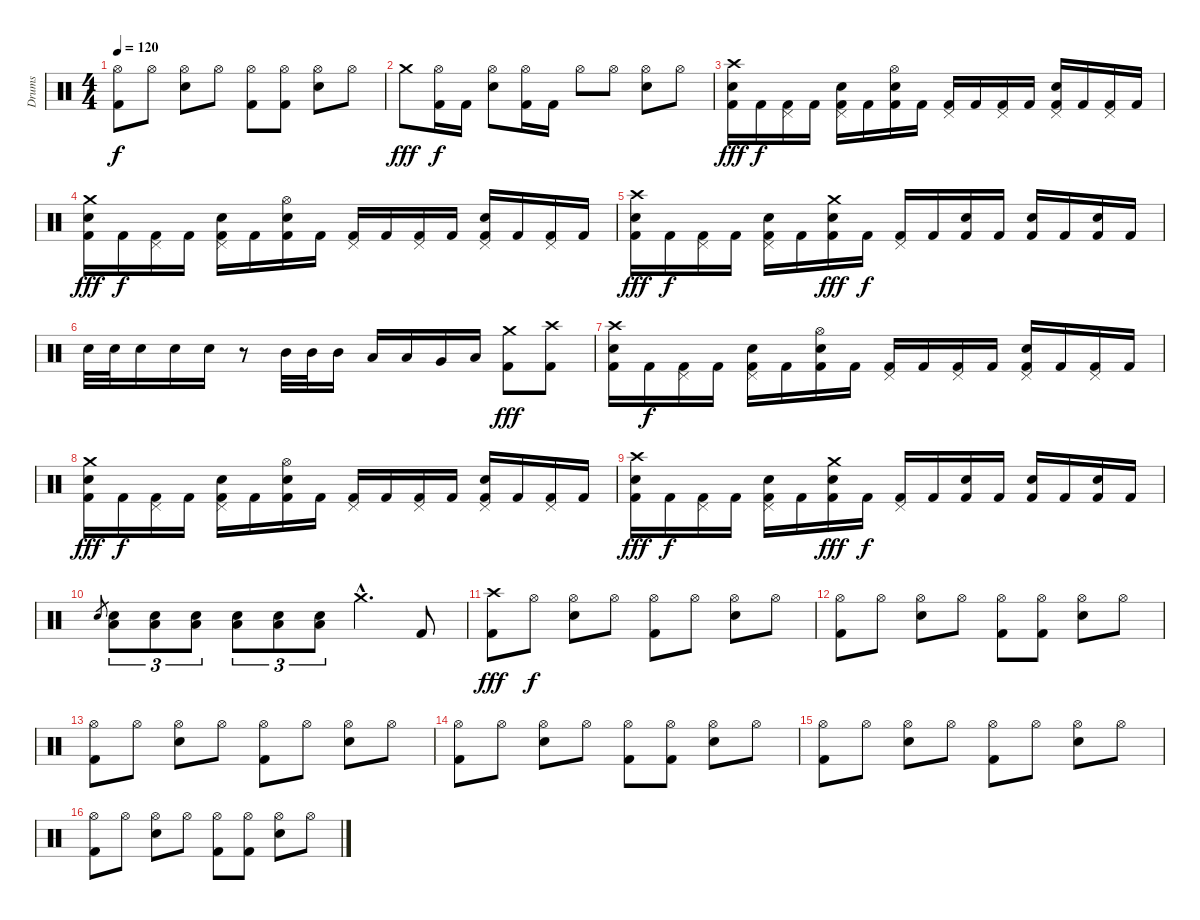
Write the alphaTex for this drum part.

\track ("Drums" "Drums") {instrument percussion}
\staff {score}
\articulation defaults
\ts (4 4)
\tempo 120
\clef neutral
\ks c
("Hi-Hat (open)" "Kick (hit) 2").8{dy f} "Hi-Hat (open)".8 ("Hi-Hat (open)" "Electric Snare (hit)").8 "Hi-Hat (open)".8 ("Hi-Hat (open)" "Kick (hit) 2").8 ("Hi-Hat (open)" "Kick (hit) 2").8 ("Hi-Hat (open)" "Electric Snare (hit)").8 "Hi-Hat (open)".8 |
"Crash medium (hit)".8{dy fff} ("Hi-Hat (open)" "Kick (hit) 2").16{dy f} "Kick (hit) 2".16 ("Hi-Hat (open)" "Electric Snare (hit)").8 ("Hi-Hat (open)" "Kick (hit) 2").16 "Kick (hit) 2".16 "Hi-Hat (open)".8 "Hi-Hat (open)".8 ("Hi-Hat (open)" "Electric Snare (hit)").8 "Hi-Hat (open)".8 |
("Crash high (hit)" "Electric Snare (hit)" "Kick (hit) 2").16{dy fff} "Kick (hit) 2".16{dy f} ("Pedal Hi-Hat (hit)" "Kick (hit) 2").16 "Kick (hit) 2".16 ("Pedal Hi-Hat (hit)" "Electric Snare (hit)" "Kick (hit) 2").16 "Kick (hit) 2".16 ("Hi-Hat (open)" "Electric Snare (hit)" "Kick (hit) 2").16 "Kick (hit) 2".16 ("Pedal Hi-Hat (hit)" "Kick (hit) 2").16 "Kick (hit) 2".16 ("Pedal Hi-Hat (hit)" "Kick (hit) 2").16 "Kick (hit) 2".16 ("Pedal Hi-Hat (hit)" "Electric Snare (hit)" "Kick (hit) 2").16 "Kick (hit) 2".16 ("Pedal Hi-Hat (hit)" "Kick (hit) 2").16 "Kick (hit) 2".16 |
("Crash medium (hit)" "Electric Snare (hit)" "Kick (hit) 2").16{dy fff} "Kick (hit) 2".16{dy f} ("Pedal Hi-Hat (hit)" "Kick (hit) 2").16 "Kick (hit) 2".16 ("Pedal Hi-Hat (hit)" "Electric Snare (hit)" "Kick (hit) 2").16 "Kick (hit) 2".16 ("Hi-Hat (open)" "Electric Snare (hit)" "Kick (hit) 2").16 "Kick (hit) 2".16 ("Pedal Hi-Hat (hit)" "Kick (hit) 2").16 "Kick (hit) 2".16 ("Pedal Hi-Hat (hit)" "Kick (hit) 2").16 "Kick (hit) 2".16 ("Pedal Hi-Hat (hit)" "Electric Snare (hit)" "Kick (hit) 2").16 "Kick (hit) 2".16 ("Pedal Hi-Hat (hit)" "Kick (hit) 2").16 "Kick (hit) 2".16 |
("Crash high (hit)" "Electric Snare (hit)" "Kick (hit) 2").16{dy fff} "Kick (hit) 2".16{dy f} ("Pedal Hi-Hat (hit)" "Kick (hit) 2").16 "Kick (hit) 2".16 ("Pedal Hi-Hat (hit)" "Electric Snare (hit)" "Kick (hit) 2").16 "Kick (hit) 2".16 ("Crash medium (hit)" "Electric Snare (hit)" "Kick (hit) 2").16{dy fff} "Kick (hit) 2".16{dy f} ("Pedal Hi-Hat (hit)" "Kick (hit) 2").16 "Kick (hit) 2".16 ("Electric Snare (hit)" "Kick (hit) 2").16 "Kick (hit) 2".16 ("Electric Snare (hit)" "Kick (hit) 2").16 "Kick (hit) 2".16 ("Electric Snare (hit)" "Kick (hit) 2").16 "Kick (hit) 2".16 |
"Electric Snare (hit)".32 "Electric Snare (hit)".32 "Electric Snare (hit)".16 "Electric Snare (hit)".16 "Electric Snare (hit)".16 r.8 "Mid Tom (hit)".32 "Mid Tom (hit)".32 "Mid Tom (hit)".16 "Low Tom (hit)".16 "Low Tom (hit)".16 "Very Low Tom (hit)".16 "Low Floor Tom (hit)".16 ("Crash medium (hit)" "Kick (hit) 2").8{dy fff} ("Crash high (hit)" "Kick (hit) 2").8 |
("Crash high (hit)" "Electric Snare (hit)" "Kick (hit) 2").16 "Kick (hit) 2".16{dy f} ("Pedal Hi-Hat (hit)" "Kick (hit) 2").16 "Kick (hit) 2".16 ("Pedal Hi-Hat (hit)" "Electric Snare (hit)" "Kick (hit) 2").16 "Kick (hit) 2".16 ("Hi-Hat (open)" "Electric Snare (hit)" "Kick (hit) 2").16 "Kick (hit) 2".16 ("Pedal Hi-Hat (hit)" "Kick (hit) 2").16 "Kick (hit) 2".16 ("Pedal Hi-Hat (hit)" "Kick (hit) 2").16 "Kick (hit) 2".16 ("Pedal Hi-Hat (hit)" "Electric Snare (hit)" "Kick (hit) 2").16 "Kick (hit) 2".16 ("Pedal Hi-Hat (hit)" "Kick (hit) 2").16 "Kick (hit) 2".16 |
("Crash medium (hit)" "Electric Snare (hit)" "Kick (hit) 2").16{dy fff} "Kick (hit) 2".16{dy f} ("Pedal Hi-Hat (hit)" "Kick (hit) 2").16 "Kick (hit) 2".16 ("Pedal Hi-Hat (hit)" "Electric Snare (hit)" "Kick (hit) 2").16 "Kick (hit) 2".16 ("Hi-Hat (open)" "Electric Snare (hit)" "Kick (hit) 2").16 "Kick (hit) 2".16 ("Pedal Hi-Hat (hit)" "Kick (hit) 2").16 "Kick (hit) 2".16 ("Pedal Hi-Hat (hit)" "Kick (hit) 2").16 "Kick (hit) 2".16 ("Pedal Hi-Hat (hit)" "Electric Snare (hit)" "Kick (hit) 2").16 "Kick (hit) 2".16 ("Pedal Hi-Hat (hit)" "Kick (hit) 2").16 "Kick (hit) 2".16 |
("Crash high (hit)" "Electric Snare (hit)" "Kick (hit) 2").16{dy fff} "Kick (hit) 2".16{dy f} ("Pedal Hi-Hat (hit)" "Kick (hit) 2").16 "Kick (hit) 2".16 ("Pedal Hi-Hat (hit)" "Electric Snare (hit)" "Kick (hit) 2").16 "Kick (hit) 2".16 ("Crash medium (hit)" "Electric Snare (hit)" "Kick (hit) 2").16{dy fff} "Kick (hit) 2".16{dy f} ("Pedal Hi-Hat (hit)" "Kick (hit) 2").16 "Kick (hit) 2".16 ("Electric Snare (hit)" "Kick (hit) 2").16 "Kick (hit) 2".16 ("Electric Snare (hit)" "Kick (hit) 2").16 "Kick (hit) 2".16 ("Electric Snare (hit)" "Kick (hit) 2").16 "Kick (hit) 2".16 |
"Electric Snare (hit)".8{gr} ("Electric Snare (hit)" "Low Tom (hit)").8{tu (3 2)} ("Electric Snare (hit)" "Low Tom (hit)").8{tu (3 2)} ("Electric Snare (hit)" "Low Tom (hit)").8{tu (3 2)} ("Electric Snare (hit)" "Low Tom (hit)").8{tu (3 2)} ("Electric Snare (hit)" "Low Tom (hit)").8{tu (3 2)} ("Electric Snare (hit)" "Low Tom (hit)").8{tu (3 2)} "Crash medium (hit)"{hac}.4{d} "Kick (hit) 2".8 |
("Crash high (hit)" "Kick (hit) 2").8{dy fff} "Hi-Hat (open)".8{dy f} ("Hi-Hat (open)" "Electric Snare (hit)").8 "Hi-Hat (open)".8 ("Hi-Hat (open)" "Kick (hit) 2").8 "Hi-Hat (open)".8 ("Hi-Hat (open)" "Electric Snare (hit)").8 "Hi-Hat (open)".8 |
("Hi-Hat (open)" "Kick (hit) 2").8 "Hi-Hat (open)".8 ("Hi-Hat (open)" "Electric Snare (hit)").8 "Hi-Hat (open)".8 ("Hi-Hat (open)" "Kick (hit) 2").8 ("Hi-Hat (open)" "Kick (hit) 2").8 ("Hi-Hat (open)" "Electric Snare (hit)").8 "Hi-Hat (open)".8 |
("Hi-Hat (open)" "Kick (hit) 2").8 "Hi-Hat (open)".8 ("Hi-Hat (open)" "Electric Snare (hit)").8 "Hi-Hat (open)".8 ("Hi-Hat (open)" "Kick (hit) 2").8 "Hi-Hat (open)".8 ("Hi-Hat (open)" "Electric Snare (hit)").8 "Hi-Hat (open)".8 |
("Hi-Hat (open)" "Kick (hit) 2").8 "Hi-Hat (open)".8 ("Hi-Hat (open)" "Electric Snare (hit)").8 "Hi-Hat (open)".8 ("Hi-Hat (open)" "Kick (hit) 2").8 ("Hi-Hat (open)" "Kick (hit) 2").8 ("Hi-Hat (open)" "Electric Snare (hit)").8 "Hi-Hat (open)".8 |
("Hi-Hat (open)" "Kick (hit) 2").8 "Hi-Hat (open)".8 ("Hi-Hat (open)" "Electric Snare (hit)").8 "Hi-Hat (open)".8 ("Hi-Hat (open)" "Kick (hit) 2").8 "Hi-Hat (open)".8 ("Hi-Hat (open)" "Electric Snare (hit)").8 "Hi-Hat (open)".8 |
("Hi-Hat (open)" "Kick (hit) 2").8 "Hi-Hat (open)".8 ("Hi-Hat (open)" "Electric Snare (hit)").8 "Hi-Hat (open)".8 ("Hi-Hat (open)" "Kick (hit) 2").8 ("Hi-Hat (open)" "Kick (hit) 2").8 ("Hi-Hat (open)" "Electric Snare (hit)").8 "Hi-Hat (open)".8
